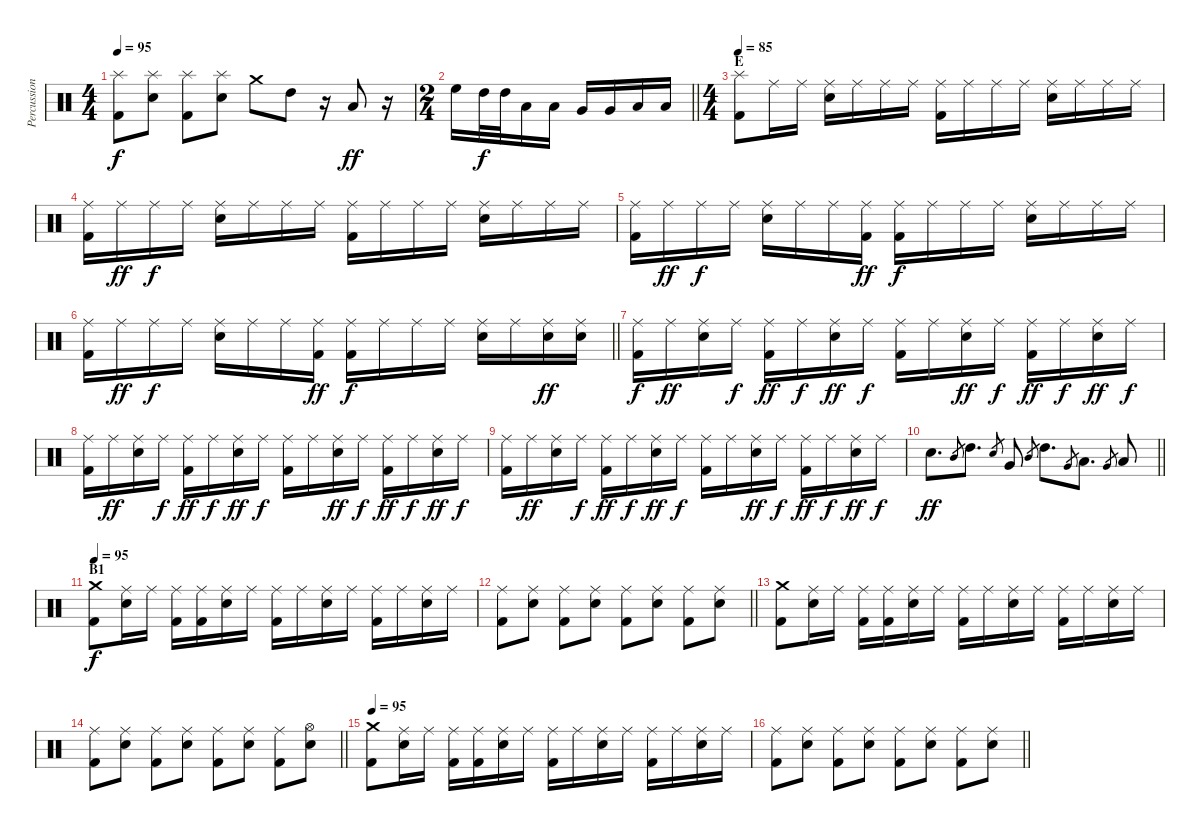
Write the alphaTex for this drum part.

\track ("Percussion" "Percussion") {instrument percussion}
\staff {score}
\articulation defaults
\ts (4 4)
\tempo 95
\clef neutral
\ks c
("Splash (hit)" "Kick (hit) 2").8{dy f} ("Splash (hit)" "Snare (hit) 2").8 ("Splash (hit)" "Kick (hit) 2").8 ("Splash (hit)" "Snare (hit) 2").8 "Crash medium (hit)".8 "High Tom (hit)".8 r.16 "Low Tom (hit)".8{dy ff} r.16 |
\ts (2 4)
\barLineRight lightlight "High Floor Tom (hit)".16 "High Tom (hit)".32{dy f} "High Tom (hit)".32 "Low Tom (hit)".16 "Low Tom (hit)".16 "Very Low Tom (hit)".16 "Very Low Tom (hit)".16 "Low Floor Tom (hit)".16 "Low Floor Tom (hit)".16
|
\ts (4 4)
\section ("" "E")
\tempo 85
("Splash (hit)" "Kick (hit) 2").8 "Ride (middle)".16 "Ride (middle)".16 ("Ride (middle)" "Snare (hit) 2").16 "Ride (middle)".16 "Ride (middle)".16 "Ride (middle)".16 ("Ride (middle)" "Kick (hit) 2").16 "Ride (middle)".16 "Ride (middle)".16 "Ride (middle)".16 ("Ride (middle)" "Snare (hit) 2").16 "Ride (middle)".16 "Ride (middle)".16 "Ride (middle)".16 |
("Ride (middle)" "Kick (hit) 2").16 "Ride (middle)".16{dy ff} "Ride (middle)".16{dy f} "Ride (middle)".16 ("Ride (middle)" "Snare (hit) 2").16 "Ride (middle)".16 "Ride (middle)".16 "Ride (middle)".16 ("Ride (middle)" "Kick (hit) 2").16 "Ride (middle)".16 "Ride (middle)".16 "Ride (middle)".16 ("Ride (middle)" "Snare (hit) 2").16 "Ride (middle)".16 "Ride (middle)".16 "Ride (middle)".16 |
("Ride (middle)" "Kick (hit) 2").16 "Ride (middle)".16{dy ff} "Ride (middle)".16{dy f} "Ride (middle)".16 ("Ride (middle)" "Snare (hit) 2").16 "Ride (middle)".16 "Ride (middle)".16 ("Ride (middle)" "Kick (hit) 2").16{dy ff} ("Ride (middle)" "Kick (hit) 2").16{dy f} "Ride (middle)".16 "Ride (middle)".16 "Ride (middle)".16 ("Ride (middle)" "Snare (hit) 2").16 "Ride (middle)".16 "Ride (middle)".16 "Ride (middle)".16 |
\barLineRight lightlight
("Ride (middle)" "Kick (hit) 2").16 "Ride (middle)".16{dy ff} "Ride (middle)".16{dy f} "Ride (middle)".16 ("Ride (middle)" "Snare (hit) 2").16 "Ride (middle)".16 "Ride (middle)".16 ("Ride (middle)" "Kick (hit) 2").16{dy ff} ("Ride (middle)" "Kick (hit) 2").16{dy f} "Ride (middle)".16 "Ride (middle)".16 "Ride (middle)".16 ("Ride (middle)" "Snare (hit) 2").16 "Ride (middle)".16 ("Ride (middle)" "Snare (hit) 2").16{dy ff} ("Ride (middle)" "Snare (hit) 2").16 |
\section ("" "")
("Ride (middle)" "Kick (hit) 2").16{dy f} "Ride (middle)".16{dy ff} ("Ride (middle)" "Snare (hit) 2").16 "Ride (middle)".16{dy f} ("Ride (middle)" "Kick (hit) 2").16{dy ff} "Ride (middle)".16{dy f} ("Ride (middle)" "Snare (hit) 2").16{dy ff} "Ride (middle)".16{dy f} ("Ride (middle)" "Kick (hit) 2").16 "Ride (middle)".16 ("Ride (middle)" "Snare (hit) 2").16{dy ff} "Ride (middle)".16{dy f} ("Ride (middle)" "Kick (hit) 2").16{dy ff} "Ride (middle)".16{dy f} ("Ride (middle)" "Snare (hit) 2").16{dy ff} "Ride (middle)".16{dy f} |
("Ride (middle)" "Kick (hit) 2").16 "Ride (middle)".16{dy ff} ("Ride (middle)" "Snare (hit) 2").16 "Ride (middle)".16{dy f} ("Ride (middle)" "Kick (hit) 2").16{dy ff} "Ride (middle)".16{dy f} ("Ride (middle)" "Snare (hit) 2").16{dy ff} "Ride (middle)".16{dy f} ("Ride (middle)" "Kick (hit) 2").16 "Ride (middle)".16 ("Ride (middle)" "Snare (hit) 2").16{dy ff} "Ride (middle)".16{dy f} ("Ride (middle)" "Kick (hit) 2").16{dy ff} "Ride (middle)".16{dy f} ("Ride (middle)" "Snare (hit) 2").16{dy ff} "Ride (middle)".16{dy f} |
("Ride (middle)" "Kick (hit) 2").16 "Ride (middle)".16{dy ff} ("Ride (middle)" "Snare (hit) 2").16 "Ride (middle)".16{dy f} ("Ride (middle)" "Kick (hit) 2").16{dy ff} "Ride (middle)".16{dy f} ("Ride (middle)" "Snare (hit) 2").16{dy ff} "Ride (middle)".16{dy f} ("Ride (middle)" "Kick (hit) 2").16 "Ride (middle)".16 ("Ride (middle)" "Snare (hit) 2").16{dy ff} "Ride (middle)".16{dy f} ("Ride (middle)" "Kick (hit) 2").16{dy ff} "Ride (middle)".16{dy f} ("Ride (middle)" "Snare (hit) 2").16{dy ff} "Ride (middle)".16{dy f} |
\barLineRight lightlight "Snare (hit) 2".8{d dy ff} "Mid Tom (hit)".8{gr} "High Tom (hit)".8{d} "Snare (hit) 2".8{gr} "Very Low Tom (hit)".8 "Mid Tom (hit)".8{gr} "High Tom (hit)".8{d} "Very Low Tom (hit)".8{gr} "Low Tom (hit)".8{d} "Very Low Tom (hit)".8{gr} "Low Floor Tom (hit)".8
|
\section ("" "B1")
\tempo 95
("Crash medium (hit)" "Kick (hit) 2").8{dy f} ("Ride (middle)" "Snare (hit) 2").16 "Ride (middle)".16 ("Ride (middle)" "Kick (hit) 2").16 ("Ride (middle)" "Kick (hit) 2").16 ("Ride (middle)" "Snare (hit) 2").16 "Ride (middle)".16 ("Ride (middle)" "Kick (hit) 2").16 "Ride (middle)".16 ("Ride (middle)" "Snare (hit) 2").16 "Ride (middle)".16 ("Ride (middle)" "Kick (hit) 2").16 "Ride (middle)".16 ("Ride (middle)" "Snare (hit) 2").16 "Ride (middle)".16 |
\barLineRight lightlight
("Ride (middle)" "Kick (hit) 2").8 ("Ride (middle)" "Snare (hit) 2").8 ("Ride (middle)" "Kick (hit) 2").8 ("Ride (middle)" "Snare (hit) 2").8 ("Ride (middle)" "Kick (hit) 2").8 ("Ride (middle)" "Snare (hit) 2").8 ("Ride (middle)" "Kick (hit) 2").8 ("Ride (middle)" "Snare (hit) 2").8 |
\section ("" "")
("Crash medium (hit)" "Kick (hit) 2").8 ("Ride (middle)" "Snare (hit) 2").16 "Ride (middle)".16 ("Ride (middle)" "Kick (hit) 2").16 ("Ride (middle)" "Kick (hit) 2").16 ("Ride (middle)" "Snare (hit) 2").16 "Ride (middle)".16 ("Ride (middle)" "Kick (hit) 2").16 "Ride (middle)".16 ("Ride (middle)" "Snare (hit) 2").16 "Ride (middle)".16 ("Ride (middle)" "Kick (hit) 2").16 "Ride (middle)".16 ("Ride (middle)" "Snare (hit) 2").16 "Ride (middle)".16 |
\barLineRight lightlight
("Ride (middle)" "Kick (hit) 2").8 ("Ride (middle)" "Snare (hit) 2").8 ("Ride (middle)" "Kick (hit) 2").8 ("Ride (middle)" "Snare (hit) 2").8 ("Ride (middle)" "Kick (hit) 2").8 ("Ride (middle)" "Snare (hit) 2").8 ("Ride (middle)" "Kick (hit) 2").8 ("Hi-Hat (open)" "Snare (hit) 2").8 |
\section ("" "")
\tempo 95
("Crash medium (hit)" "Kick (hit) 2").8 ("Ride (middle)" "Snare (hit) 2").16 "Ride (middle)".16 ("Ride (middle)" "Kick (hit) 2").16 ("Ride (middle)" "Kick (hit) 2").16 ("Ride (middle)" "Snare (hit) 2").16 "Ride (middle)".16 ("Ride (middle)" "Kick (hit) 2").16 "Ride (middle)".16 ("Ride (middle)" "Snare (hit) 2").16 "Ride (middle)".16 ("Ride (middle)" "Kick (hit) 2").16 "Ride (middle)".16 ("Ride (middle)" "Snare (hit) 2").16 "Ride (middle)".16 |
\barLineRight lightlight
("Ride (middle)" "Kick (hit) 2").8 ("Ride (middle)" "Snare (hit) 2").8 ("Ride (middle)" "Kick (hit) 2").8 ("Ride (middle)" "Snare (hit) 2").8 ("Ride (middle)" "Kick (hit) 2").8 ("Ride (middle)" "Snare (hit) 2").8 ("Ride (middle)" "Kick (hit) 2").8 ("Ride (middle)" "Snare (hit) 2").8
